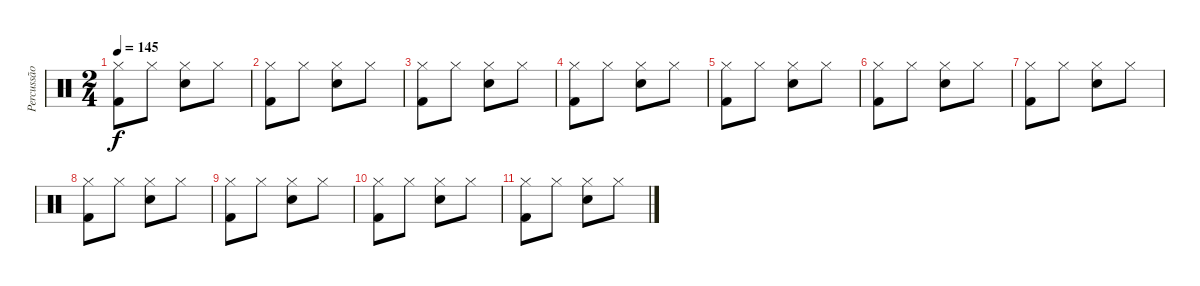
\track ("Percussão" "Percussão") {instrument percussion}
\staff {score}
\articulation defaults
\ts (2 4)
\tempo 145
\clef neutral
\ks c
("Hi-Hat (closed)" "Kick (hit) 2").8{dy f} "Hi-Hat (closed)".8 ("Hi-Hat (closed)" "Snare (hit) 2").8 "Hi-Hat (closed)".8 |
("Hi-Hat (closed)" "Kick (hit) 2").8 "Hi-Hat (closed)".8 ("Hi-Hat (closed)" "Snare (hit) 2").8 "Hi-Hat (closed)".8 |
("Hi-Hat (closed)" "Kick (hit) 2").8 "Hi-Hat (closed)".8 ("Hi-Hat (closed)" "Snare (hit) 2").8 "Hi-Hat (closed)".8 |
("Hi-Hat (closed)" "Kick (hit) 2").8 "Hi-Hat (closed)".8 ("Hi-Hat (closed)" "Snare (hit) 2").8 "Hi-Hat (closed)".8 |
("Hi-Hat (closed)" "Kick (hit) 2").8 "Hi-Hat (closed)".8 ("Hi-Hat (closed)" "Snare (hit) 2").8 "Hi-Hat (closed)".8 |
("Hi-Hat (closed)" "Kick (hit) 2").8 "Hi-Hat (closed)".8 ("Hi-Hat (closed)" "Snare (hit) 2").8 "Hi-Hat (closed)".8 |
("Hi-Hat (closed)" "Kick (hit) 2").8 "Hi-Hat (closed)".8 ("Hi-Hat (closed)" "Snare (hit) 2").8 "Hi-Hat (closed)".8 |
("Hi-Hat (closed)" "Kick (hit) 2").8 "Hi-Hat (closed)".8 ("Hi-Hat (closed)" "Snare (hit) 2").8 "Hi-Hat (closed)".8 |
("Hi-Hat (closed)" "Kick (hit) 2").8 "Hi-Hat (closed)".8 ("Hi-Hat (closed)" "Snare (hit) 2").8 "Hi-Hat (closed)".8 |
("Hi-Hat (closed)" "Kick (hit) 2").8 "Hi-Hat (closed)".8 ("Hi-Hat (closed)" "Snare (hit) 2").8 "Hi-Hat (closed)".8 |
("Hi-Hat (closed)" "Kick (hit) 2").8 "Hi-Hat (closed)".8 ("Hi-Hat (closed)" "Snare (hit) 2").8 "Hi-Hat (closed)".8
